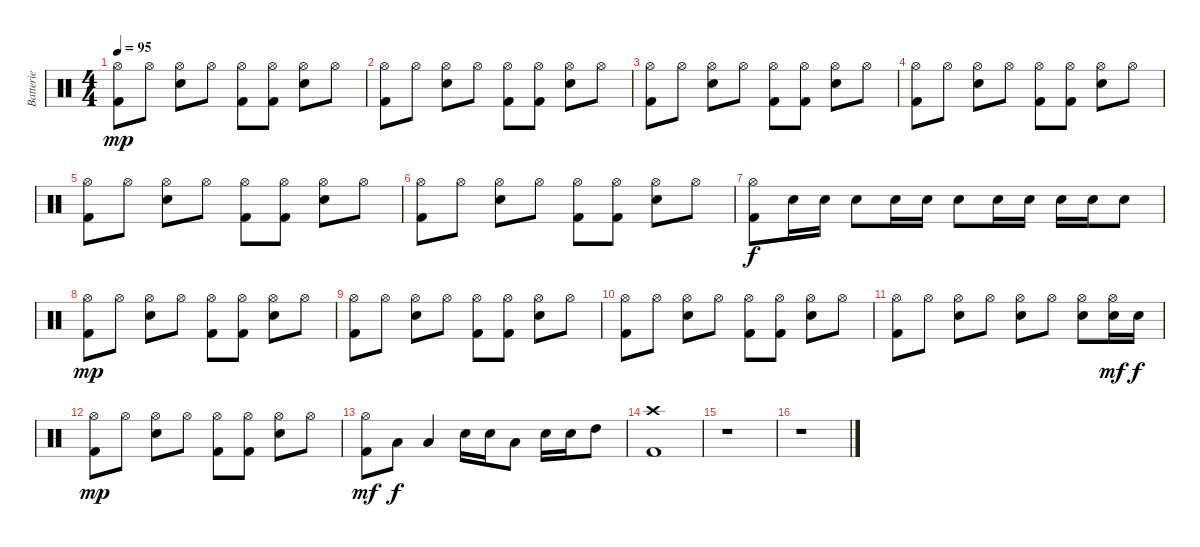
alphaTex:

\track ("Batterie" "Batterie") {instrument percussion}
\staff {score}
\articulation defaults
\ts (4 4)
\tempo 95
\clef neutral
\ks c
("Hi-Hat (open)" "Kick (hit) 2").8{dy mp} "Hi-Hat (open)".8 ("Hi-Hat (open)" "Electric Snare (hit)").8 "Hi-Hat (open)".8 ("Hi-Hat (open)" "Kick (hit) 2").8 ("Hi-Hat (open)" "Kick (hit) 2").8 ("Hi-Hat (open)" "Electric Snare (hit)").8 "Hi-Hat (open)".8 |
("Hi-Hat (open)" "Kick (hit) 2").8 "Hi-Hat (open)".8 ("Hi-Hat (open)" "Electric Snare (hit)").8 "Hi-Hat (open)".8 ("Hi-Hat (open)" "Kick (hit) 2").8 ("Hi-Hat (open)" "Kick (hit) 2").8 ("Hi-Hat (open)" "Electric Snare (hit)").8 "Hi-Hat (open)".8 |
("Hi-Hat (open)" "Kick (hit) 2").8 "Hi-Hat (open)".8 ("Hi-Hat (open)" "Electric Snare (hit)").8 "Hi-Hat (open)".8 ("Hi-Hat (open)" "Kick (hit) 2").8 ("Hi-Hat (open)" "Kick (hit) 2").8 ("Hi-Hat (open)" "Electric Snare (hit)").8 "Hi-Hat (open)".8 |
("Hi-Hat (open)" "Kick (hit) 2").8 "Hi-Hat (open)".8 ("Hi-Hat (open)" "Electric Snare (hit)").8 "Hi-Hat (open)".8 ("Hi-Hat (open)" "Kick (hit) 2").8 ("Hi-Hat (open)" "Kick (hit) 2").8 ("Hi-Hat (open)" "Electric Snare (hit)").8 "Hi-Hat (open)".8 |
("Hi-Hat (open)" "Kick (hit) 2").8 "Hi-Hat (open)".8 ("Hi-Hat (open)" "Electric Snare (hit)").8 "Hi-Hat (open)".8 ("Hi-Hat (open)" "Kick (hit) 2").8 ("Hi-Hat (open)" "Kick (hit) 2").8 ("Hi-Hat (open)" "Electric Snare (hit)").8 "Hi-Hat (open)".8 |
("Hi-Hat (open)" "Kick (hit) 2").8 "Hi-Hat (open)".8 ("Hi-Hat (open)" "Electric Snare (hit)").8 "Hi-Hat (open)".8 ("Hi-Hat (open)" "Kick (hit) 2").8 ("Hi-Hat (open)" "Kick (hit) 2").8 ("Hi-Hat (open)" "Electric Snare (hit)").8 "Hi-Hat (open)".8 |
("Hi-Hat (open)" "Kick (hit) 2").8{dy f} "Electric Snare (hit)".16 "Electric Snare (hit)".16 "Electric Snare (hit)".8 "Electric Snare (hit)".16 "Electric Snare (hit)".16 "Electric Snare (hit)".8 "Electric Snare (hit)".16 "Electric Snare (hit)".16 "Electric Snare (hit)".16 "Electric Snare (hit)".16 "Electric Snare (hit)".8 |
("Hi-Hat (open)" "Kick (hit) 2").8{dy mp} "Hi-Hat (open)".8 ("Hi-Hat (open)" "Electric Snare (hit)").8 "Hi-Hat (open)".8 ("Hi-Hat (open)" "Kick (hit) 2").8 ("Hi-Hat (open)" "Kick (hit) 2").8 ("Hi-Hat (open)" "Electric Snare (hit)").8 "Hi-Hat (open)".8 |
("Hi-Hat (open)" "Kick (hit) 2").8 "Hi-Hat (open)".8 ("Hi-Hat (open)" "Electric Snare (hit)").8 "Hi-Hat (open)".8 ("Hi-Hat (open)" "Kick (hit) 2").8 ("Hi-Hat (open)" "Kick (hit) 2").8 ("Hi-Hat (open)" "Electric Snare (hit)").8 "Hi-Hat (open)".8 |
("Hi-Hat (open)" "Kick (hit) 2").8 "Hi-Hat (open)".8 ("Hi-Hat (open)" "Electric Snare (hit)").8 "Hi-Hat (open)".8 ("Hi-Hat (open)" "Kick (hit) 2").8 ("Hi-Hat (open)" "Kick (hit) 2").8 ("Hi-Hat (open)" "Electric Snare (hit)").8 "Hi-Hat (open)".8 |
("Hi-Hat (open)" "Kick (hit) 2").8 "Hi-Hat (open)".8 ("Hi-Hat (open)" "Electric Snare (hit)").8 "Hi-Hat (open)".8 ("Hi-Hat (open)" "Electric Snare (hit)").8 "Hi-Hat (open)".8 ("Hi-Hat (open)" "Electric Snare (hit)").8 ("Hi-Hat (open)" "Electric Snare (hit)").16{dy mf} "Electric Snare (hit)".16{dy f} |
("Hi-Hat (open)" "Kick (hit) 2").8{dy mp} "Hi-Hat (open)".8 ("Hi-Hat (open)" "Electric Snare (hit)").8 "Hi-Hat (open)".8 ("Hi-Hat (open)" "Kick (hit) 2").8 ("Hi-Hat (open)" "Kick (hit) 2").8 ("Hi-Hat (open)" "Electric Snare (hit)").8 "Hi-Hat (open)".8 |
("Hi-Hat (open)" "Kick (hit) 2").8{dy mf} "Low Tom (hit)".8{dy f} "Low Tom (hit)".4 "Electric Snare (hit)".16 "Electric Snare (hit)".16 "Low Tom (hit)".8 "Electric Snare (hit)".16 "Electric Snare (hit)".16 "High Tom (hit)".8 |
("Crash high (hit)" "Kick (hit) 2").1 |
r.1 |
r.1
